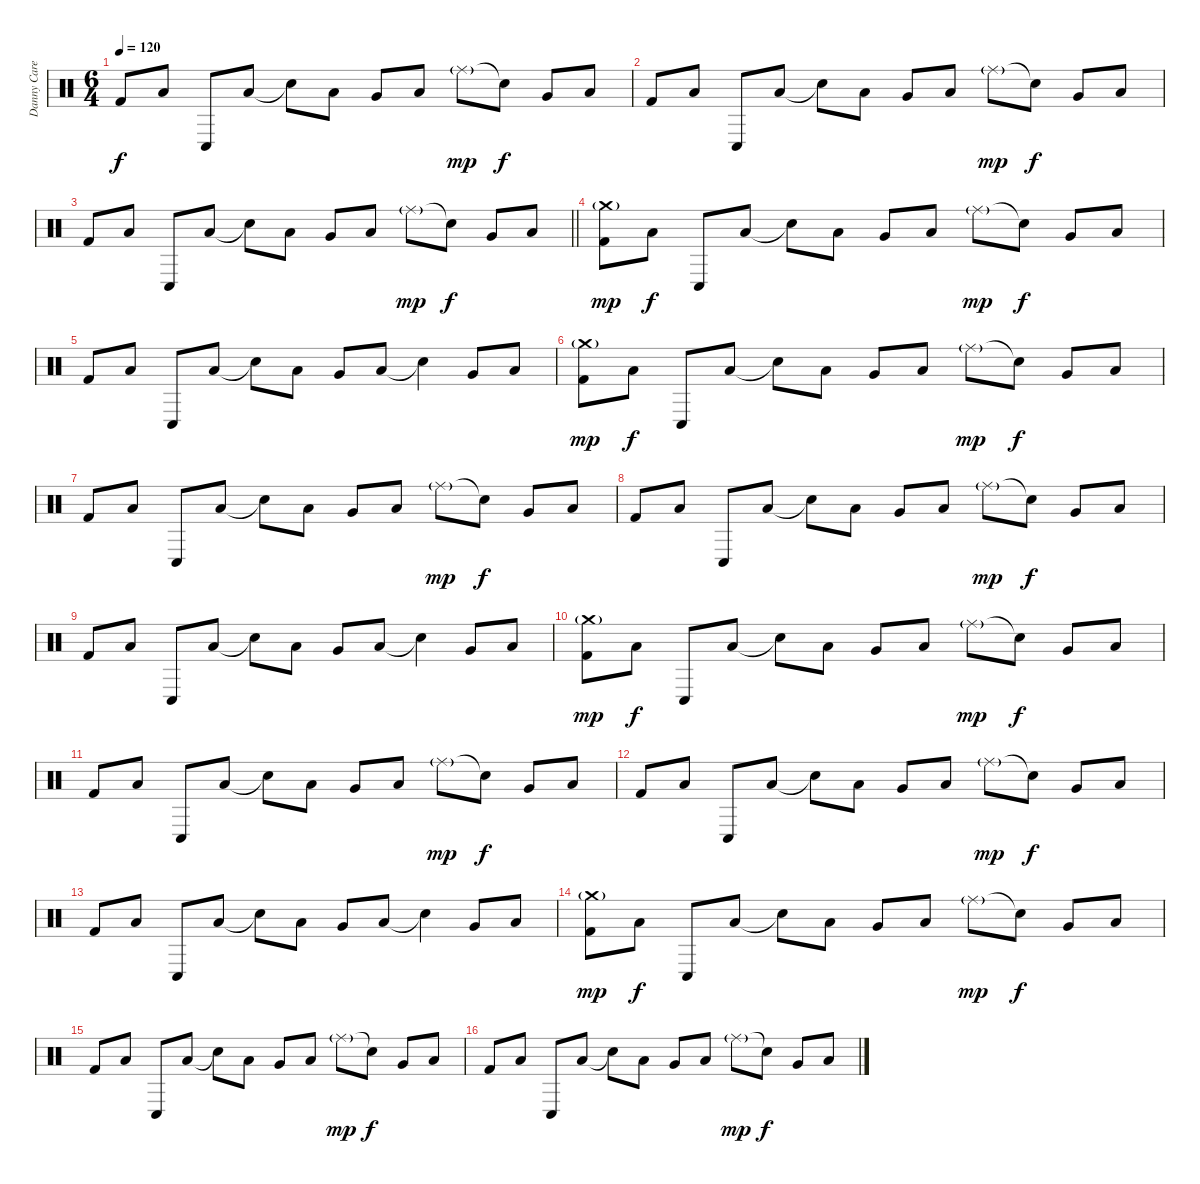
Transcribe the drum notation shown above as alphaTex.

\track ("Danny Carey" "Danny Care") {instrument percussion}
\staff {score}
\articulation defaults
\ts (6 4)
\tempo 120
\clef neutral
\ks c "Kick (hit) 2".8{dy f} "Low Tom (hit)".8 "Conga low (hit)".8 "Low Tom (hit)".8 "Snare (hit)"{t}.8 "Low Tom (hit)".8 "Very Low Tom (hit)".8 "Low Tom (hit)".8 "Ride (middle)"{g}.8{dy mp} "Snare (hit)"{t}.8{dy f} "Very Low Tom (hit)".8 "Low Floor Tom (hit)".8
|
"Kick (hit) 2".8 "Low Tom (hit)".8 "Conga low (hit)".8 "Low Tom (hit)".8 "Snare (hit)"{t}.8 "Low Tom (hit)".8 "Very Low Tom (hit)".8 "Low Tom (hit)".8 "Ride (middle)"{g}.8{dy mp} "Snare (hit)"{t}.8{dy f} "Very Low Tom (hit)".8 "Low Floor Tom (hit)".8 |
\barLineRight lightlight "Kick (hit) 2".8 "Low Tom (hit)".8 "Conga low (hit)".8 "Low Tom (hit)".8 "Snare (hit)"{t}.8 "Low Tom (hit)".8 "Very Low Tom (hit)".8 "Low Tom (hit)".8 "Ride (middle)"{g}.8{dy mp} "Snare (hit)"{t}.8{dy f} "Very Low Tom (hit)".8 "Low Floor Tom (hit)".8
|
\section ("" "")
("Crash medium (hit)"{g} "Kick (hit) 2").8{dy mp} "Low Tom (hit)".8{dy f} "Conga low (hit)".8 "Low Tom (hit)".8 "Snare (hit)"{t}.8 "Low Tom (hit)".8 "Very Low Tom (hit)".8 "Low Tom (hit)".8 "Ride (middle)"{g}.8{dy mp} "Snare (hit)"{t}.8{dy f} "Very Low Tom (hit)".8 "Low Floor Tom (hit)".8 |
"Kick (hit) 2".8 "Low Tom (hit)".8 "Conga low (hit)".8 "Low Tom (hit)".8 "Snare (hit)"{t}.8 "Low Tom (hit)".8 "Very Low Tom (hit)".8 "Low Tom (hit)".8 "Snare (hit)"{t}.4 "Very Low Tom (hit)".8 "Low Floor Tom (hit)".8 |
("Crash medium (hit)"{g} "Kick (hit) 2").8{dy mp} "Low Tom (hit)".8{dy f} "Conga low (hit)".8 "Low Tom (hit)".8 "Snare (hit)"{t}.8 "Low Tom (hit)".8 "Very Low Tom (hit)".8 "Low Tom (hit)".8 "Ride (middle)"{g}.8{dy mp} "Snare (hit)"{t}.8{dy f} "Very Low Tom (hit)".8 "Low Floor Tom (hit)".8 |
"Kick (hit) 2".8 "Low Tom (hit)".8 "Conga low (hit)".8 "Low Tom (hit)".8 "Snare (hit)"{t}.8 "Low Tom (hit)".8 "Very Low Tom (hit)".8 "Low Tom (hit)".8 "Ride (middle)"{g}.8{dy mp} "Snare (hit)"{t}.8{dy f} "Very Low Tom (hit)".8 "Low Floor Tom (hit)".8 |
"Kick (hit) 2".8 "Low Tom (hit)".8 "Conga low (hit)".8 "Low Tom (hit)".8 "Snare (hit)"{t}.8 "Low Tom (hit)".8 "Very Low Tom (hit)".8 "Low Tom (hit)".8 "Ride (middle)"{g}.8{dy mp} "Snare (hit)"{t}.8{dy f} "Very Low Tom (hit)".8 "Low Floor Tom (hit)".8 |
"Kick (hit) 2".8 "Low Tom (hit)".8 "Conga low (hit)".8 "Low Tom (hit)".8 "Snare (hit)"{t}.8 "Low Tom (hit)".8 "Very Low Tom (hit)".8 "Low Tom (hit)".8 "Snare (hit)"{t}.4 "Very Low Tom (hit)".8 "Low Floor Tom (hit)".8 |
("Crash medium (hit)"{g} "Kick (hit) 2").8{dy mp} "Low Tom (hit)".8{dy f} "Conga low (hit)".8 "Low Tom (hit)".8 "Snare (hit)"{t}.8 "Low Tom (hit)".8 "Very Low Tom (hit)".8 "Low Tom (hit)".8 "Ride (middle)"{g}.8{dy mp} "Snare (hit)"{t}.8{dy f} "Very Low Tom (hit)".8 "Low Floor Tom (hit)".8 |
"Kick (hit) 2".8 "Low Tom (hit)".8 "Conga low (hit)".8 "Low Tom (hit)".8 "Snare (hit)"{t}.8 "Low Tom (hit)".8 "Very Low Tom (hit)".8 "Low Tom (hit)".8 "Ride (middle)"{g}.8{dy mp} "Snare (hit)"{t}.8{dy f} "Very Low Tom (hit)".8 "Low Floor Tom (hit)".8 |
"Kick (hit) 2".8 "Low Tom (hit)".8 "Conga low (hit)".8 "Low Tom (hit)".8 "Snare (hit)"{t}.8 "Low Tom (hit)".8 "Very Low Tom (hit)".8 "Low Tom (hit)".8 "Ride (middle)"{g}.8{dy mp} "Snare (hit)"{t}.8{dy f} "Very Low Tom (hit)".8 "Low Floor Tom (hit)".8 |
"Kick (hit) 2".8 "Low Tom (hit)".8 "Conga low (hit)".8 "Low Tom (hit)".8 "Snare (hit)"{t}.8 "Low Tom (hit)".8 "Very Low Tom (hit)".8 "Low Tom (hit)".8 "Snare (hit)"{t}.4 "Very Low Tom (hit)".8 "Low Floor Tom (hit)".8 |
("Crash medium (hit)"{g} "Kick (hit) 2").8{dy mp} "Low Tom (hit)".8{dy f} "Conga low (hit)".8 "Low Tom (hit)".8 "Snare (hit)"{t}.8 "Low Tom (hit)".8 "Very Low Tom (hit)".8 "Low Tom (hit)".8 "Ride (middle)"{g}.8{dy mp} "Snare (hit)"{t}.8{dy f} "Very Low Tom (hit)".8 "Low Floor Tom (hit)".8 |
"Kick (hit) 2".8 "Low Tom (hit)".8 "Conga low (hit)".8 "Low Tom (hit)".8 "Snare (hit)"{t}.8 "Low Tom (hit)".8 "Very Low Tom (hit)".8 "Low Tom (hit)".8 "Ride (middle)"{g}.8{dy mp} "Snare (hit)"{t}.8{dy f} "Very Low Tom (hit)".8 "Low Floor Tom (hit)".8 |
"Kick (hit) 2".8 "Low Tom (hit)".8 "Conga low (hit)".8 "Low Tom (hit)".8 "Snare (hit)"{t}.8 "Low Tom (hit)".8 "Very Low Tom (hit)".8 "Low Tom (hit)".8 "Ride (middle)"{g}.8{dy mp} "Snare (hit)"{t}.8{dy f} "Very Low Tom (hit)".8 "Low Floor Tom (hit)".8
